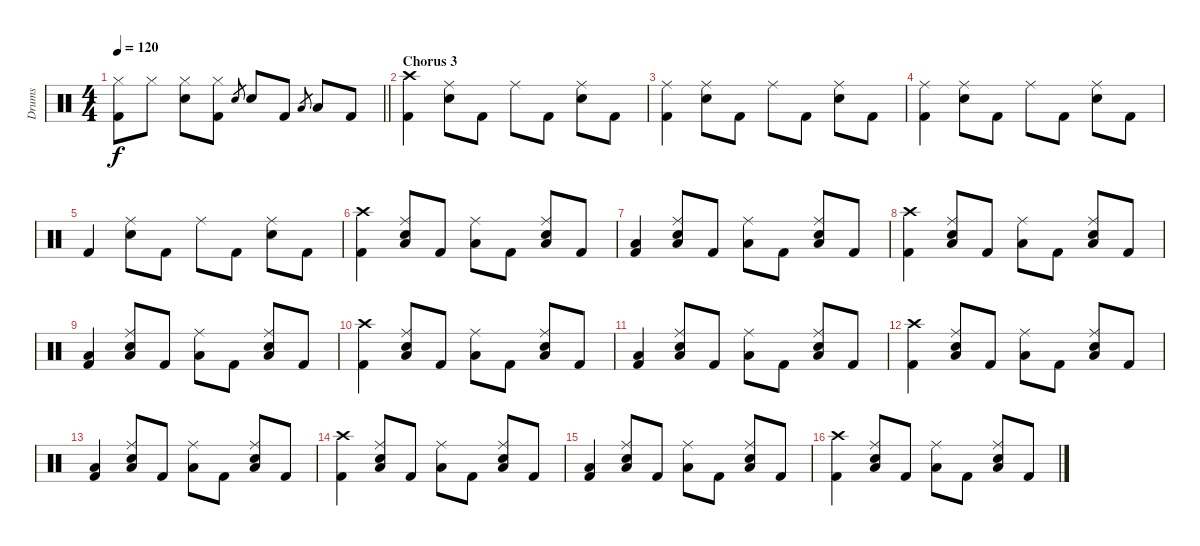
\track ("Drums" "Drums") {instrument percussion}
\staff {score}
\articulation defaults
\ts (4 4)
\tempo 120
\clef neutral
\barLineRight lightlight
\ks c
("Hi-Hat (closed)" "Kick (hit) 2").8{dy f} "Hi-Hat (closed)".8 ("Hi-Hat (closed)" "Snare (hit) 2").8 ("Hi-Hat (closed)" "Kick (hit) 2").8 "Snare (hit) 2".8{gr} "Snare (hit) 2".8 "Kick (hit) 2".8 "Low Tom (hit)".8{gr} "Low Tom (hit)".8 "Kick (hit) 2".8 |
\section ("" "Chorus 3")
("Crash high (hit)" "Kick (hit) 2").4 ("Ride (middle)" "Snare (hit) 2").8 "Kick (hit) 2".8 "Ride (middle)".8 "Kick (hit) 2".8 ("Ride (middle)" "Snare (hit) 2").8 "Kick (hit) 2".8 |
("Ride (middle)" "Kick (hit) 2").4 ("Ride (middle)" "Snare (hit) 2").8 "Kick (hit) 2".8 "Ride (middle)".8 "Kick (hit) 2".8 ("Ride (middle)" "Snare (hit) 2").8 "Kick (hit) 2".8 |
("Ride (middle)" "Kick (hit) 2").4 ("Ride (middle)" "Snare (hit) 2").8 "Kick (hit) 2".8 "Ride (middle)".8 "Kick (hit) 2".8 ("Ride (middle)" "Snare (hit) 2").8 "Kick (hit) 2".8 |
"Kick (hit) 2".4 ("Ride (middle)" "Snare (hit) 2").8 "Kick (hit) 2".8 "Ride (middle)".8 "Kick (hit) 2".8 ("Ride (middle)" "Snare (hit) 2").8 "Kick (hit) 2".8 |
("Crash high (hit)" "Kick (hit) 2").4 ("Ride (middle)" "Low Floor Tom (hit)" "Snare (hit) 2").8 "Kick (hit) 2".8 ("Ride (middle)" "Low Floor Tom (hit)").8 "Kick (hit) 2".8 ("Ride (middle)" "Low Floor Tom (hit)" "Snare (hit) 2").8 "Kick (hit) 2".8 |
("Low Floor Tom (hit)" "Kick (hit) 2").4 ("Ride (middle)" "Low Floor Tom (hit)" "Snare (hit) 2").8 "Kick (hit) 2".8 ("Ride (middle)" "Low Floor Tom (hit)").8 "Kick (hit) 2".8 ("Ride (middle)" "Low Floor Tom (hit)" "Snare (hit) 2").8 "Kick (hit) 2".8 |
("Crash high (hit)" "Kick (hit) 2").4 ("Ride (middle)" "Low Floor Tom (hit)" "Snare (hit) 2").8 "Kick (hit) 2".8 ("Ride (middle)" "Low Floor Tom (hit)").8 "Kick (hit) 2".8 ("Ride (middle)" "Low Floor Tom (hit)" "Snare (hit) 2").8 "Kick (hit) 2".8 |
("Low Floor Tom (hit)" "Kick (hit) 2").4 ("Ride (middle)" "Low Floor Tom (hit)" "Snare (hit) 2").8 "Kick (hit) 2".8 ("Ride (middle)" "Low Floor Tom (hit)").8 "Kick (hit) 2".8 ("Ride (middle)" "Low Floor Tom (hit)" "Snare (hit) 2").8 "Kick (hit) 2".8 |
("Crash high (hit)" "Kick (hit) 2").4 ("Ride (middle)" "Low Floor Tom (hit)" "Snare (hit) 2").8 "Kick (hit) 2".8 ("Ride (middle)" "Low Floor Tom (hit)").8 "Kick (hit) 2".8 ("Ride (middle)" "Low Floor Tom (hit)" "Snare (hit) 2").8 "Kick (hit) 2".8 |
("Low Floor Tom (hit)" "Kick (hit) 2").4 ("Ride (middle)" "Low Floor Tom (hit)" "Snare (hit) 2").8 "Kick (hit) 2".8 ("Ride (middle)" "Low Floor Tom (hit)").8 "Kick (hit) 2".8 ("Ride (middle)" "Low Floor Tom (hit)" "Snare (hit) 2").8 "Kick (hit) 2".8 |
("Crash high (hit)" "Kick (hit) 2").4 ("Ride (middle)" "Low Floor Tom (hit)" "Snare (hit) 2").8 "Kick (hit) 2".8 ("Ride (middle)" "Low Floor Tom (hit)").8 "Kick (hit) 2".8 ("Ride (middle)" "Low Floor Tom (hit)" "Snare (hit) 2").8 "Kick (hit) 2".8 |
("Low Floor Tom (hit)" "Kick (hit) 2").4 ("Ride (middle)" "Low Floor Tom (hit)" "Snare (hit) 2").8 "Kick (hit) 2".8 ("Ride (middle)" "Low Floor Tom (hit)").8 "Kick (hit) 2".8 ("Ride (middle)" "Low Floor Tom (hit)" "Snare (hit) 2").8 "Kick (hit) 2".8 |
("Crash high (hit)" "Kick (hit) 2").4 ("Ride (middle)" "Low Floor Tom (hit)" "Snare (hit) 2").8 "Kick (hit) 2".8 ("Ride (middle)" "Low Floor Tom (hit)").8 "Kick (hit) 2".8 ("Ride (middle)" "Low Floor Tom (hit)" "Snare (hit) 2").8 "Kick (hit) 2".8 |
("Low Floor Tom (hit)" "Kick (hit) 2").4 ("Ride (middle)" "Low Floor Tom (hit)" "Snare (hit) 2").8 "Kick (hit) 2".8 ("Ride (middle)" "Low Floor Tom (hit)").8 "Kick (hit) 2".8 ("Ride (middle)" "Low Floor Tom (hit)" "Snare (hit) 2").8 "Kick (hit) 2".8 |
("Crash high (hit)" "Kick (hit) 2").4 ("Ride (middle)" "Low Floor Tom (hit)" "Snare (hit) 2").8 "Kick (hit) 2".8 ("Ride (middle)" "Low Floor Tom (hit)").8 "Kick (hit) 2".8 ("Ride (middle)" "Low Floor Tom (hit)" "Snare (hit) 2").8 "Kick (hit) 2".8
